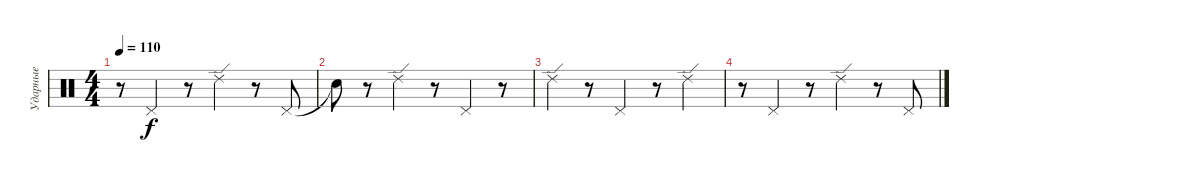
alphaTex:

\track ("Ударные" "Ударные") {instrument percussion}
\staff {score}
\articulation defaults
\ts (4 4)
\tempo 110
\clef neutral
\ks c
r.8{dy f} "Pedal Hi-Hat (hit)".4 r.8 "Ride (edge) 2".4 r.8 "Pedal Hi-Hat (hit)".8 |
"Snare (hit)"{t}.8 r.8 "Ride (edge) 2".4 r.8 "Pedal Hi-Hat (hit)".4 r.8 |
"Ride (edge) 2".4 r.8 "Pedal Hi-Hat (hit)".4 r.8 "Ride (edge) 2".4 |
r.8 "Pedal Hi-Hat (hit)".4 r.8 "Ride (edge) 2".4 r.8 "Pedal Hi-Hat (hit)".8
